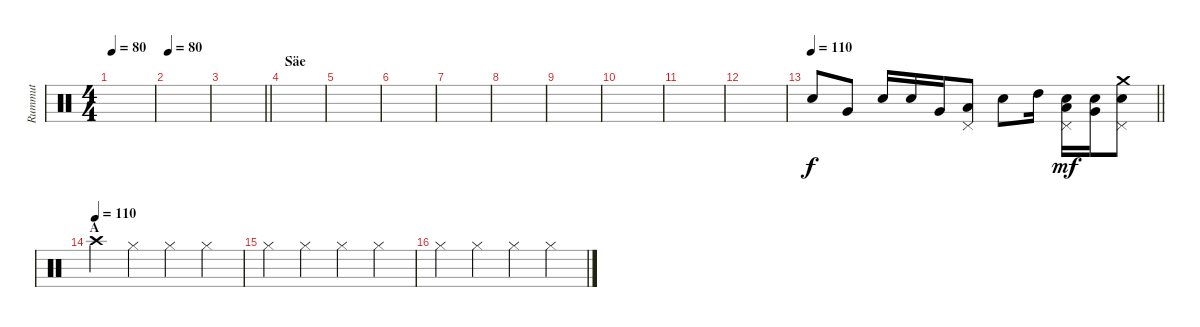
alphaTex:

\track ("Rummut" "Rummut") {instrument percussion}
\staff {score}
\articulation defaults
\ts (4 4)
\tempo 80
\clef neutral
\ks c
|
\tempo 80
|
\barLineRight lightlight
|
\section ("" "Säe")
|
|
|
|
|
|
|
|
|
\tempo 110
\barLineRight lightlight "Electric Snare (hit)".8 "Very Low Tom (hit)".8 "Electric Snare (hit)".16 "Electric Snare (hit)".16 "Very Low Tom (hit)".16
("Pedal Hi-Hat (hit)" "Low Floor Tom (hit)").8 "Electric Snare (hit)".8 "High Tom (hit)".16 ("Pedal Hi-Hat (hit)" "Electric Snare (hit)" "Low Tom (hit)").16{dy mf} ("Electric Snare (hit)" "Very Low Tom (hit)").16 ("Crash medium (hit)" "Pedal Hi-Hat (hit)" "Electric Snare (hit)").8 |
\section ("" "A")
\tempo (110)
"Crash high (hit)".4 "Hi-Hat (closed)".4 "Hi-Hat (closed)".4 "Hi-Hat (closed)".4 |
"Hi-Hat (closed)".4 "Hi-Hat (closed)".4 "Hi-Hat (closed)".4 "Hi-Hat (closed)".4 |
"Hi-Hat (closed)".4 "Hi-Hat (closed)".4 "Hi-Hat (closed)".4 "Hi-Hat (closed)".4
